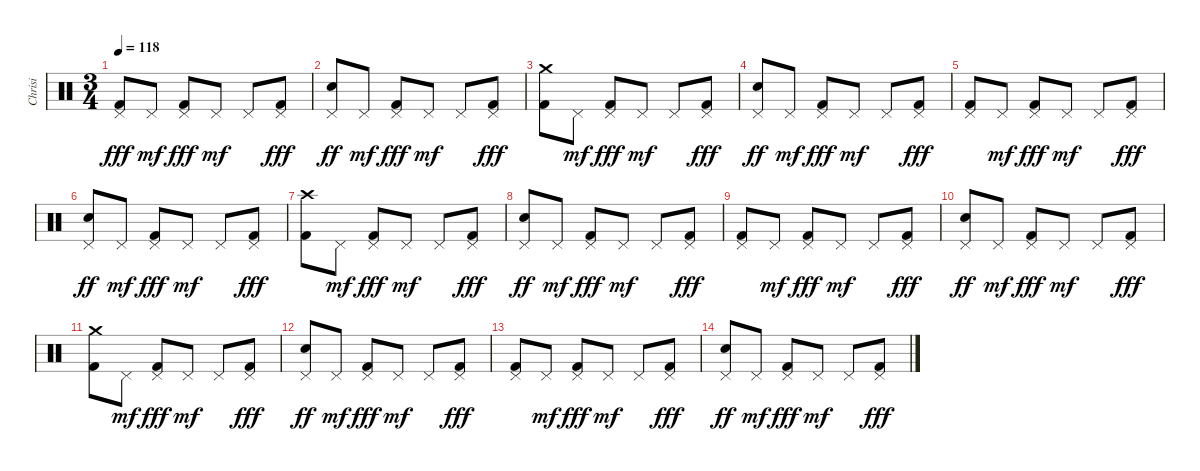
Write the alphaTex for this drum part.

\track ("Chrisi" "Chrisi") {instrument percussion}
\staff {score}
\articulation defaults
\ts (3 4)
\tempo 118
\clef neutral
\ks c
("Pedal Hi-Hat (hit)" "Kick (hit) 2").8{dy fff} "Pedal Hi-Hat (hit)".8{dy mf} ("Pedal Hi-Hat (hit)" "Kick (hit) 2").8{dy fff} "Pedal Hi-Hat (hit)".8{dy mf} "Pedal Hi-Hat (hit)".8 ("Pedal Hi-Hat (hit)" "Kick (hit) 2").8{dy fff} |
("Pedal Hi-Hat (hit)" "Electric Snare (hit)").8{dy ff} "Pedal Hi-Hat (hit)".8{dy mf} ("Pedal Hi-Hat (hit)" "Kick (hit) 2").8{dy fff} "Pedal Hi-Hat (hit)".8{dy mf} "Pedal Hi-Hat (hit)".8 ("Pedal Hi-Hat (hit)" "Kick (hit) 2").8{dy fff} |
("Crash medium (hit)" "Kick (hit) 2").8 "Pedal Hi-Hat (hit)".8{dy mf} ("Pedal Hi-Hat (hit)" "Kick (hit) 2").8{dy fff} "Pedal Hi-Hat (hit)".8{dy mf} "Pedal Hi-Hat (hit)".8 ("Pedal Hi-Hat (hit)" "Kick (hit) 2").8{dy fff} |
("Pedal Hi-Hat (hit)" "Electric Snare (hit)").8{dy ff} "Pedal Hi-Hat (hit)".8{dy mf} ("Pedal Hi-Hat (hit)" "Kick (hit) 2").8{dy fff} "Pedal Hi-Hat (hit)".8{dy mf} "Pedal Hi-Hat (hit)".8 ("Pedal Hi-Hat (hit)" "Kick (hit) 2").8{dy fff} |
("Pedal Hi-Hat (hit)" "Kick (hit) 2").8 "Pedal Hi-Hat (hit)".8{dy mf} ("Pedal Hi-Hat (hit)" "Kick (hit) 2").8{dy fff} "Pedal Hi-Hat (hit)".8{dy mf} "Pedal Hi-Hat (hit)".8 ("Pedal Hi-Hat (hit)" "Kick (hit) 2").8{dy fff} |
("Pedal Hi-Hat (hit)" "Electric Snare (hit)").8{dy ff} "Pedal Hi-Hat (hit)".8{dy mf} ("Pedal Hi-Hat (hit)" "Kick (hit) 2").8{dy fff} "Pedal Hi-Hat (hit)".8{dy mf} "Pedal Hi-Hat (hit)".8 ("Pedal Hi-Hat (hit)" "Kick (hit) 2").8{dy fff} |
("Crash high (hit)" "Kick (hit) 2").8 "Pedal Hi-Hat (hit)".8{dy mf} ("Pedal Hi-Hat (hit)" "Kick (hit) 2").8{dy fff} "Pedal Hi-Hat (hit)".8{dy mf} "Pedal Hi-Hat (hit)".8 ("Pedal Hi-Hat (hit)" "Kick (hit) 2").8{dy fff} |
("Pedal Hi-Hat (hit)" "Electric Snare (hit)").8{dy ff} "Pedal Hi-Hat (hit)".8{dy mf} ("Pedal Hi-Hat (hit)" "Kick (hit) 2").8{dy fff} "Pedal Hi-Hat (hit)".8{dy mf} "Pedal Hi-Hat (hit)".8 ("Pedal Hi-Hat (hit)" "Kick (hit) 2").8{dy fff} |
("Pedal Hi-Hat (hit)" "Kick (hit) 2").8 "Pedal Hi-Hat (hit)".8{dy mf} ("Pedal Hi-Hat (hit)" "Kick (hit) 2").8{dy fff} "Pedal Hi-Hat (hit)".8{dy mf} "Pedal Hi-Hat (hit)".8 ("Pedal Hi-Hat (hit)" "Kick (hit) 2").8{dy fff} |
("Pedal Hi-Hat (hit)" "Electric Snare (hit)").8{dy ff} "Pedal Hi-Hat (hit)".8{dy mf} ("Pedal Hi-Hat (hit)" "Kick (hit) 2").8{dy fff} "Pedal Hi-Hat (hit)".8{dy mf} "Pedal Hi-Hat (hit)".8 ("Pedal Hi-Hat (hit)" "Kick (hit) 2").8{dy fff} |
("Crash medium (hit)" "Kick (hit) 2").8 "Pedal Hi-Hat (hit)".8{dy mf} ("Pedal Hi-Hat (hit)" "Kick (hit) 2").8{dy fff} "Pedal Hi-Hat (hit)".8{dy mf} "Pedal Hi-Hat (hit)".8 ("Pedal Hi-Hat (hit)" "Kick (hit) 2").8{dy fff} |
("Pedal Hi-Hat (hit)" "Electric Snare (hit)").8{dy ff} "Pedal Hi-Hat (hit)".8{dy mf} ("Pedal Hi-Hat (hit)" "Kick (hit) 2").8{dy fff} "Pedal Hi-Hat (hit)".8{dy mf} "Pedal Hi-Hat (hit)".8 ("Pedal Hi-Hat (hit)" "Kick (hit) 2").8{dy fff} |
("Pedal Hi-Hat (hit)" "Kick (hit) 2").8 "Pedal Hi-Hat (hit)".8{dy mf} ("Pedal Hi-Hat (hit)" "Kick (hit) 2").8{dy fff} "Pedal Hi-Hat (hit)".8{dy mf} "Pedal Hi-Hat (hit)".8 ("Pedal Hi-Hat (hit)" "Kick (hit) 2").8{dy fff} |
("Pedal Hi-Hat (hit)" "Electric Snare (hit)").8{dy ff} "Pedal Hi-Hat (hit)".8{dy mf} ("Pedal Hi-Hat (hit)" "Kick (hit) 2").8{dy fff} "Pedal Hi-Hat (hit)".8{dy mf} "Pedal Hi-Hat (hit)".8 ("Pedal Hi-Hat (hit)" "Kick (hit) 2").8{dy fff}
